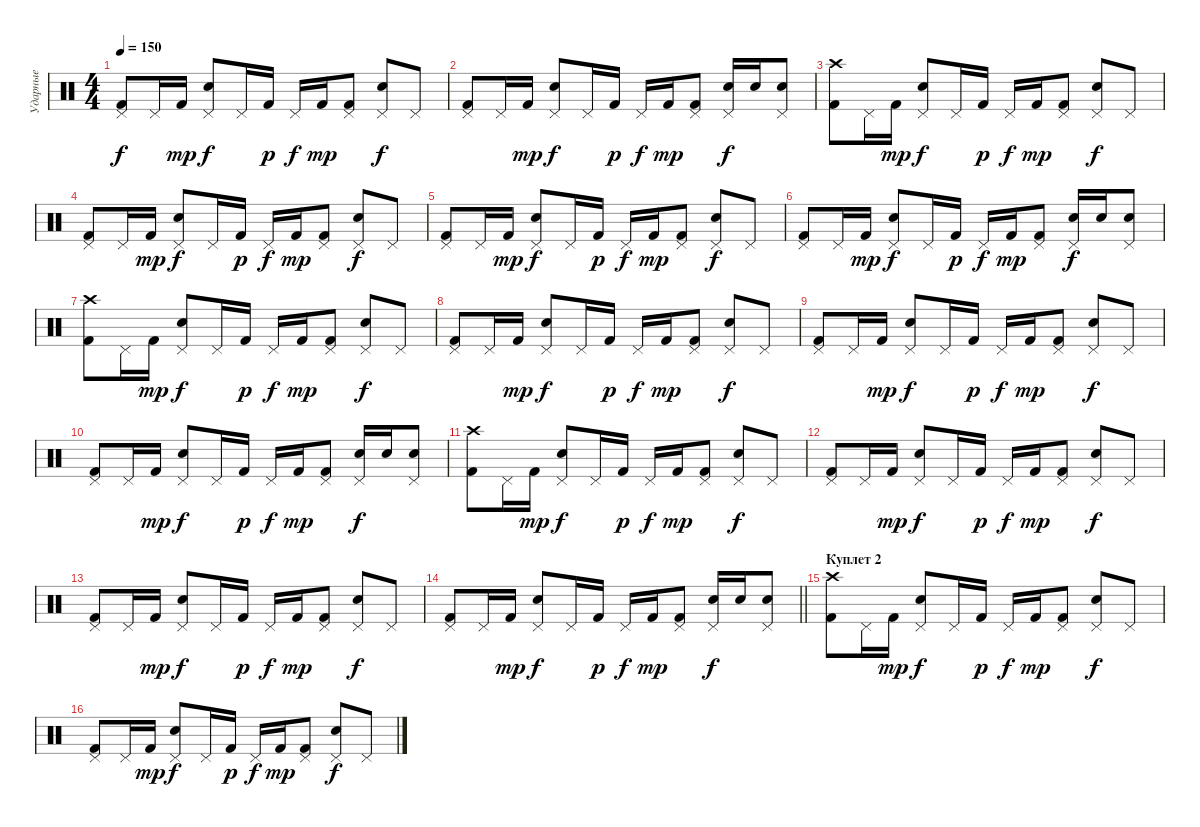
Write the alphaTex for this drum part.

\track ("Ударные" "Ударные") {instrument percussion}
\staff {score}
\articulation defaults
\ts (4 4)
\tempo 150
\clef neutral
\ks c
("Pedal Hi-Hat (hit)" "Kick (hit) 2").8{dy f} "Pedal Hi-Hat (hit)".16 "Kick (hit) 2".16{dy mp} ("Pedal Hi-Hat (hit)" "Snare (hit) 2").8{dy f} "Pedal Hi-Hat (hit)".16 "Kick (hit) 2".16{dy p} "Pedal Hi-Hat (hit)".16{dy f} "Kick (hit) 2".16{dy mp} ("Pedal Hi-Hat (hit)" "Kick (hit) 2").8 ("Pedal Hi-Hat (hit)" "Snare (hit) 2").8{dy f} "Pedal Hi-Hat (hit)".8 |
("Pedal Hi-Hat (hit)" "Kick (hit) 2").8 "Pedal Hi-Hat (hit)".16 "Kick (hit) 2".16{dy mp} ("Pedal Hi-Hat (hit)" "Snare (hit) 2").8{dy f} "Pedal Hi-Hat (hit)".16 "Kick (hit) 2".16{dy p} "Pedal Hi-Hat (hit)".16{dy f} "Kick (hit) 2".16{dy mp} ("Pedal Hi-Hat (hit)" "Kick (hit) 2").8 ("Pedal Hi-Hat (hit)" "Snare (hit) 2").16{dy f} "Snare (hit) 2".16 ("Pedal Hi-Hat (hit)" "Snare (hit) 2").8 |
("Crash high (hit)" "Kick (hit) 2").8 "Pedal Hi-Hat (hit)".16 "Kick (hit) 2".16{dy mp} ("Pedal Hi-Hat (hit)" "Snare (hit) 2").8{dy f} "Pedal Hi-Hat (hit)".16 "Kick (hit) 2".16{dy p} "Pedal Hi-Hat (hit)".16{dy f} "Kick (hit) 2".16{dy mp} ("Pedal Hi-Hat (hit)" "Kick (hit) 2").8 ("Pedal Hi-Hat (hit)" "Snare (hit) 2").8{dy f} "Pedal Hi-Hat (hit)".8 |
("Pedal Hi-Hat (hit)" "Kick (hit) 2").8 "Pedal Hi-Hat (hit)".16 "Kick (hit) 2".16{dy mp} ("Pedal Hi-Hat (hit)" "Snare (hit) 2").8{dy f} "Pedal Hi-Hat (hit)".16 "Kick (hit) 2".16{dy p} "Pedal Hi-Hat (hit)".16{dy f} "Kick (hit) 2".16{dy mp} ("Pedal Hi-Hat (hit)" "Kick (hit) 2").8 ("Pedal Hi-Hat (hit)" "Snare (hit) 2").8{dy f} "Pedal Hi-Hat (hit)".8 |
("Pedal Hi-Hat (hit)" "Kick (hit) 2").8 "Pedal Hi-Hat (hit)".16 "Kick (hit) 2".16{dy mp} ("Pedal Hi-Hat (hit)" "Snare (hit) 2").8{dy f} "Pedal Hi-Hat (hit)".16 "Kick (hit) 2".16{dy p} "Pedal Hi-Hat (hit)".16{dy f} "Kick (hit) 2".16{dy mp} ("Pedal Hi-Hat (hit)" "Kick (hit) 2").8 ("Pedal Hi-Hat (hit)" "Snare (hit) 2").8{dy f} "Pedal Hi-Hat (hit)".8 |
("Pedal Hi-Hat (hit)" "Kick (hit) 2").8 "Pedal Hi-Hat (hit)".16 "Kick (hit) 2".16{dy mp} ("Pedal Hi-Hat (hit)" "Snare (hit) 2").8{dy f} "Pedal Hi-Hat (hit)".16 "Kick (hit) 2".16{dy p} "Pedal Hi-Hat (hit)".16{dy f} "Kick (hit) 2".16{dy mp} ("Pedal Hi-Hat (hit)" "Kick (hit) 2").8 ("Pedal Hi-Hat (hit)" "Snare (hit) 2").16{dy f} "Snare (hit) 2".16 ("Pedal Hi-Hat (hit)" "Snare (hit) 2").8 |
("Crash high (hit)" "Kick (hit) 2").8 "Pedal Hi-Hat (hit)".16 "Kick (hit) 2".16{dy mp} ("Pedal Hi-Hat (hit)" "Snare (hit) 2").8{dy f} "Pedal Hi-Hat (hit)".16 "Kick (hit) 2".16{dy p} "Pedal Hi-Hat (hit)".16{dy f} "Kick (hit) 2".16{dy mp} ("Pedal Hi-Hat (hit)" "Kick (hit) 2").8 ("Pedal Hi-Hat (hit)" "Snare (hit) 2").8{dy f} "Pedal Hi-Hat (hit)".8 |
("Pedal Hi-Hat (hit)" "Kick (hit) 2").8 "Pedal Hi-Hat (hit)".16 "Kick (hit) 2".16{dy mp} ("Pedal Hi-Hat (hit)" "Snare (hit) 2").8{dy f} "Pedal Hi-Hat (hit)".16 "Kick (hit) 2".16{dy p} "Pedal Hi-Hat (hit)".16{dy f} "Kick (hit) 2".16{dy mp} ("Pedal Hi-Hat (hit)" "Kick (hit) 2").8 ("Pedal Hi-Hat (hit)" "Snare (hit) 2").8{dy f} "Pedal Hi-Hat (hit)".8 |
("Pedal Hi-Hat (hit)" "Kick (hit) 2").8 "Pedal Hi-Hat (hit)".16 "Kick (hit) 2".16{dy mp} ("Pedal Hi-Hat (hit)" "Snare (hit) 2").8{dy f} "Pedal Hi-Hat (hit)".16 "Kick (hit) 2".16{dy p} "Pedal Hi-Hat (hit)".16{dy f} "Kick (hit) 2".16{dy mp} ("Pedal Hi-Hat (hit)" "Kick (hit) 2").8 ("Pedal Hi-Hat (hit)" "Snare (hit) 2").8{dy f} "Pedal Hi-Hat (hit)".8 |
("Pedal Hi-Hat (hit)" "Kick (hit) 2").8 "Pedal Hi-Hat (hit)".16 "Kick (hit) 2".16{dy mp} ("Pedal Hi-Hat (hit)" "Snare (hit) 2").8{dy f} "Pedal Hi-Hat (hit)".16 "Kick (hit) 2".16{dy p} "Pedal Hi-Hat (hit)".16{dy f} "Kick (hit) 2".16{dy mp} ("Pedal Hi-Hat (hit)" "Kick (hit) 2").8 ("Pedal Hi-Hat (hit)" "Snare (hit) 2").16{dy f} "Snare (hit) 2".16 ("Pedal Hi-Hat (hit)" "Snare (hit) 2").8 |
("Crash high (hit)" "Kick (hit) 2").8 "Pedal Hi-Hat (hit)".16 "Kick (hit) 2".16{dy mp} ("Pedal Hi-Hat (hit)" "Snare (hit) 2").8{dy f} "Pedal Hi-Hat (hit)".16 "Kick (hit) 2".16{dy p} "Pedal Hi-Hat (hit)".16{dy f} "Kick (hit) 2".16{dy mp} ("Pedal Hi-Hat (hit)" "Kick (hit) 2").8 ("Pedal Hi-Hat (hit)" "Snare (hit) 2").8{dy f} "Pedal Hi-Hat (hit)".8 |
("Pedal Hi-Hat (hit)" "Kick (hit) 2").8 "Pedal Hi-Hat (hit)".16 "Kick (hit) 2".16{dy mp} ("Pedal Hi-Hat (hit)" "Snare (hit) 2").8{dy f} "Pedal Hi-Hat (hit)".16 "Kick (hit) 2".16{dy p} "Pedal Hi-Hat (hit)".16{dy f} "Kick (hit) 2".16{dy mp} ("Pedal Hi-Hat (hit)" "Kick (hit) 2").8 ("Pedal Hi-Hat (hit)" "Snare (hit) 2").8{dy f} "Pedal Hi-Hat (hit)".8 |
("Pedal Hi-Hat (hit)" "Kick (hit) 2").8 "Pedal Hi-Hat (hit)".16 "Kick (hit) 2".16{dy mp} ("Pedal Hi-Hat (hit)" "Snare (hit) 2").8{dy f} "Pedal Hi-Hat (hit)".16 "Kick (hit) 2".16{dy p} "Pedal Hi-Hat (hit)".16{dy f} "Kick (hit) 2".16{dy mp} ("Pedal Hi-Hat (hit)" "Kick (hit) 2").8 ("Pedal Hi-Hat (hit)" "Snare (hit) 2").8{dy f} "Pedal Hi-Hat (hit)".8 |
\barLineRight lightlight
("Pedal Hi-Hat (hit)" "Kick (hit) 2").8 "Pedal Hi-Hat (hit)".16 "Kick (hit) 2".16{dy mp} ("Pedal Hi-Hat (hit)" "Snare (hit) 2").8{dy f} "Pedal Hi-Hat (hit)".16 "Kick (hit) 2".16{dy p} "Pedal Hi-Hat (hit)".16{dy f} "Kick (hit) 2".16{dy mp} ("Pedal Hi-Hat (hit)" "Kick (hit) 2").8 ("Pedal Hi-Hat (hit)" "Snare (hit) 2").16{dy f} "Snare (hit) 2".16 ("Pedal Hi-Hat (hit)" "Snare (hit) 2").8 |
\section ("" "Куплет 2")
("Crash high (hit)" "Kick (hit) 2").8 "Pedal Hi-Hat (hit)".16 "Kick (hit) 2".16{dy mp} ("Pedal Hi-Hat (hit)" "Snare (hit) 2").8{dy f} "Pedal Hi-Hat (hit)".16 "Kick (hit) 2".16{dy p} "Pedal Hi-Hat (hit)".16{dy f} "Kick (hit) 2".16{dy mp} ("Pedal Hi-Hat (hit)" "Kick (hit) 2").8 ("Pedal Hi-Hat (hit)" "Snare (hit) 2").8{dy f} "Pedal Hi-Hat (hit)".8 |
("Pedal Hi-Hat (hit)" "Kick (hit) 2").8 "Pedal Hi-Hat (hit)".16 "Kick (hit) 2".16{dy mp} ("Pedal Hi-Hat (hit)" "Snare (hit) 2").8{dy f} "Pedal Hi-Hat (hit)".16 "Kick (hit) 2".16{dy p} "Pedal Hi-Hat (hit)".16{dy f} "Kick (hit) 2".16{dy mp} ("Pedal Hi-Hat (hit)" "Kick (hit) 2").8 ("Pedal Hi-Hat (hit)" "Snare (hit) 2").8{dy f} "Pedal Hi-Hat (hit)".8
